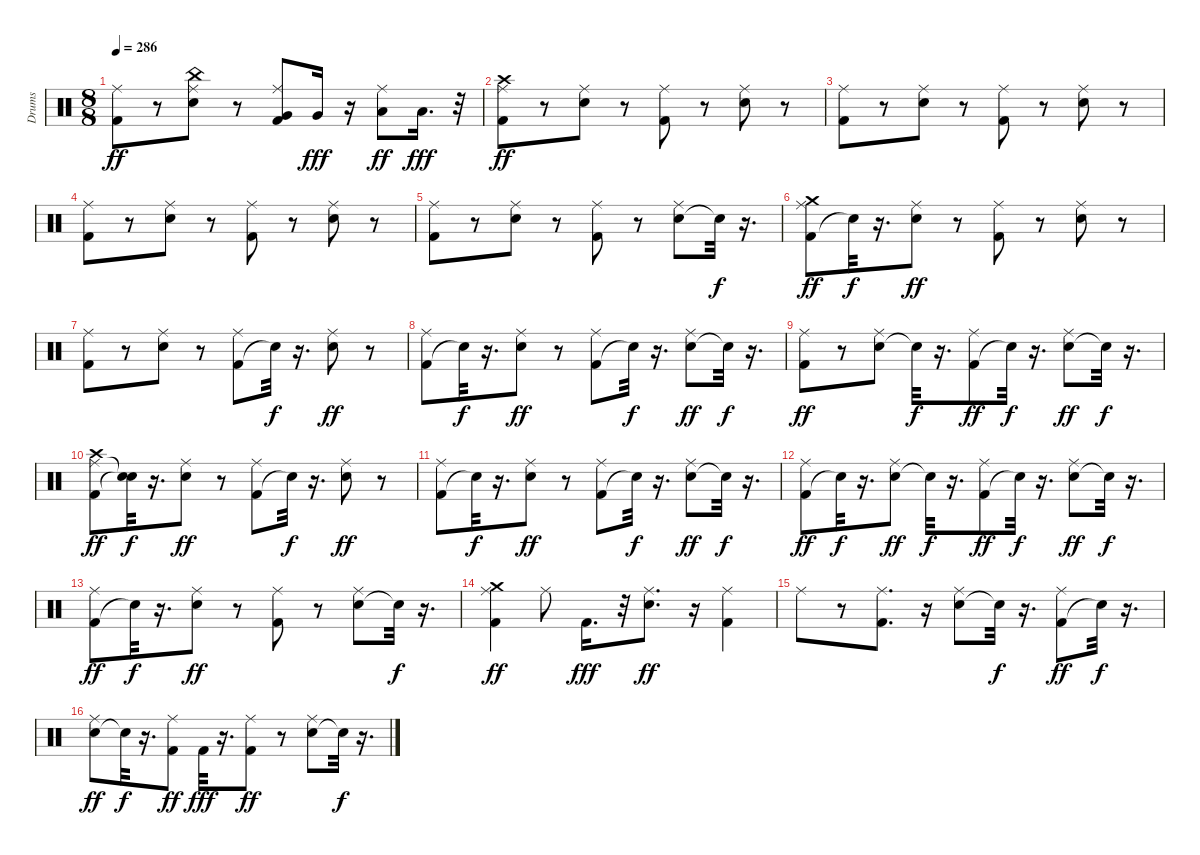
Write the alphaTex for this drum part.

\track ("Drums" "Drums") {instrument percussion}
\staff {score}
\articulation defaults
\ts (8 8)
\tempo 286
\clef neutral
\ks c
("Kick (hit) 2" "Ride (middle)").8{dy ff} r.8 ("Snare (hit) 2" "Ride (middle)" "China (hit)").8 r.8 ("Kick (hit) 2" "Very Low Tom (hit)" "Ride (middle)").8 "Very Low Tom (hit)".16{dy fff} r.16 ("Low Floor Tom (hit)" "Ride (middle)").8{dy ff} "Low Floor Tom (hit)".16{d dy fff} r.32 |
("Kick (hit) 2" "Ride (middle)" "Crash high (hit)").8{dy ff} r.8 ("Snare (hit) 2" "Ride (middle)").8 r.8 ("Kick (hit) 2" "Ride (middle)").8 r.8 ("Snare (hit) 2" "Ride (middle)").8 r.8 |
("Kick (hit) 2" "Ride (middle)").8 r.8 ("Snare (hit) 2" "Ride (middle)").8 r.8 ("Kick (hit) 2" "Ride (middle)").8 r.8 ("Snare (hit) 2" "Ride (middle)").8 r.8 |
("Kick (hit) 2" "Ride (middle)").8 r.8 ("Snare (hit) 2" "Ride (middle)").8 r.8 ("Kick (hit) 2" "Ride (middle)").8 r.8 ("Snare (hit) 2" "Ride (middle)").8 r.8 |
("Kick (hit) 2" "Ride (middle)").8 r.8 ("Snare (hit) 2" "Ride (middle)").8 r.8 ("Kick (hit) 2" "Ride (middle)").8 r.8 ("Snare (hit) 2" "Ride (middle)").8 "Snare (hit)"{t}.32{dy f} r.16{d} |
("Kick (hit) 2" "Ride (middle)" "Crash medium (hit)").8{dy ff} "Snare (hit)"{t}.32{dy f} r.16{d} ("Snare (hit) 2" "Ride (middle)").8{dy ff} r.8 ("Kick (hit) 2" "Ride (middle)").8 r.8 ("Snare (hit) 2" "Ride (middle)").8 r.8 |
("Kick (hit) 2" "Ride (middle)").8 r.8 ("Snare (hit) 2" "Ride (middle)").8 r.8 ("Kick (hit) 2" "Ride (middle)").8 "Snare (hit)"{t}.32{dy f} r.16{d} ("Snare (hit) 2" "Ride (middle)").8{dy ff} r.8 |
("Kick (hit) 2" "Ride (middle)").8 "Snare (hit)"{t}.32{dy f} r.16{d} ("Snare (hit) 2" "Ride (middle)").8{dy ff} r.8 ("Kick (hit) 2" "Ride (middle)").8 "Snare (hit)"{t}.32{dy f} r.16{d} ("Snare (hit) 2" "Ride (middle)").8{dy ff} "Snare (hit)"{t}.32{dy f} r.16{d} |
("Kick (hit) 2" "Ride (middle)").8{dy ff} r.8 ("Snare (hit) 2" "Ride (middle)").8 "Snare (hit)"{t}.32{dy f} r.16{d} ("Kick (hit) 2" "Ride (middle)").8{dy ff} "Snare (hit)"{t}.32{dy f} r.16{d} ("Snare (hit) 2" "Ride (middle)").8{dy ff} "Snare (hit)"{t}.32{dy f} r.16{d} |
("Kick (hit) 2" "Ride (middle)" "Crash high (hit)").8{dy ff} ("Snare (hit)"{t} "Snare (hit)"{t}).32{dy f} r.16{d} ("Snare (hit) 2" "Ride (middle)").8{dy ff} r.8 ("Kick (hit) 2" "Ride (middle)").8 "Snare (hit)"{t}.32{dy f} r.16{d} ("Snare (hit) 2" "Ride (middle)").8{dy ff} r.8 |
("Kick (hit) 2" "Ride (middle)").8 "Snare (hit)"{t}.32{dy f} r.16{d} ("Snare (hit) 2" "Ride (middle)").8{dy ff} r.8 ("Kick (hit) 2" "Ride (middle)").8 "Snare (hit)"{t}.32{dy f} r.16{d} ("Snare (hit) 2" "Ride (middle)").8{dy ff} "Snare (hit)"{t}.32{dy f} r.16{d} |
("Kick (hit) 2" "Ride (middle)").8{dy ff} "Snare (hit)"{t}.32{dy f} r.16{d} ("Snare (hit) 2" "Ride (middle)").8{dy ff} "Snare (hit)"{t}.32{dy f} r.16{d} ("Kick (hit) 2" "Ride (middle)").8{dy ff} "Snare (hit)"{t}.32{dy f} r.16{d} ("Snare (hit) 2" "Ride (middle)").8{dy ff} "Snare (hit)"{t}.32{dy f} r.16{d} |
("Kick (hit) 2" "Ride (middle)").8{dy ff} "Snare (hit)"{t}.32{dy f} r.16{d} ("Snare (hit) 2" "Ride (middle)").8{dy ff} r.8 ("Kick (hit) 2" "Ride (middle)").8 r.8 ("Snare (hit) 2" "Ride (middle)").8 "Snare (hit)"{t}.32{dy f} r.16{d} |
("Kick (hit) 2" "Ride (middle)" "Crash medium (hit)").4{dy ff} "Ride (middle)".8 "Kick (hit) 2".16{d dy fff} r.32 ("Snare (hit) 2" "Ride (middle)").8{d dy ff} r.16 ("Kick (hit) 2" "Ride (middle)").4 |
"Ride (middle)".8 r.8 ("Kick (hit) 2" "Ride (middle)").8{d} r.16 ("Snare (hit) 2" "Ride (middle)").8 "Snare (hit)"{t}.32{dy f} r.16{d} ("Kick (hit) 2" "Ride (middle)").8{dy ff} "Snare (hit)"{t}.32{dy f} r.16{d} |
("Snare (hit) 2" "Ride (middle)").8{dy ff} "Snare (hit)"{t}.32{dy f} r.16{d} ("Kick (hit) 2" "Ride (middle)").8{dy ff} "Kick (hit) 2".32{dy fff} r.16{d} ("Kick (hit) 2" "Ride (middle)").8{dy ff} r.8 ("Snare (hit) 2" "Ride (middle)").8 "Snare (hit)"{t}.32{dy f} r.16{d}
